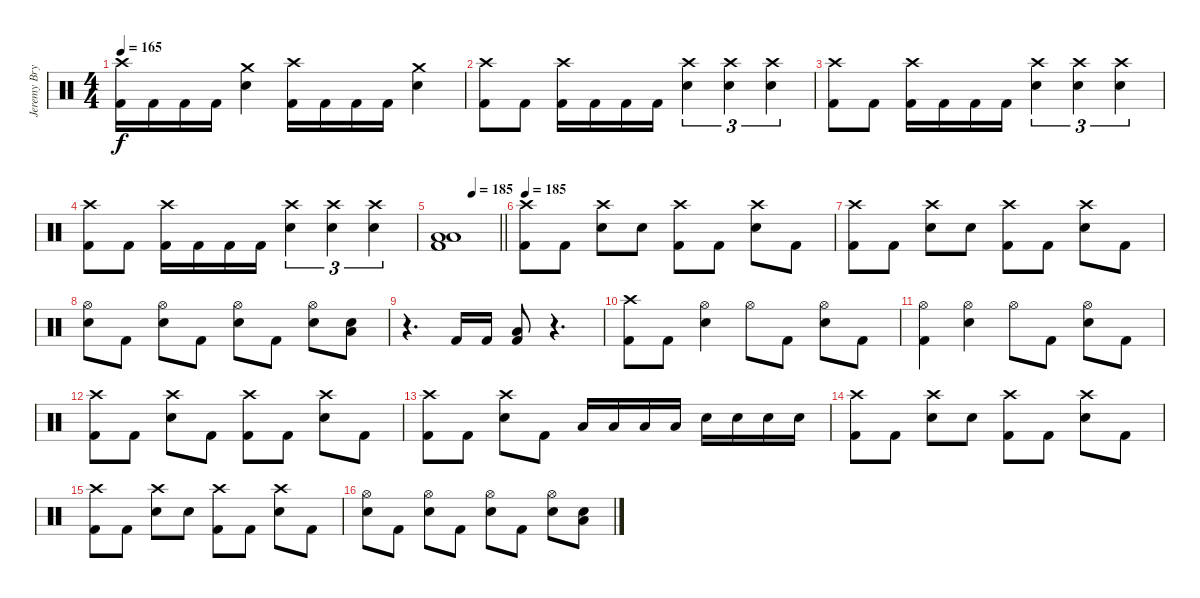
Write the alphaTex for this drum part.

\track ("Jeremy Bryan - Drums" "Jeremy Bry") {instrument percussion}
\staff {score}
\articulation defaults
\ts (4 4)
\tempo 165
\clef neutral
\ks c
("Crash high (hit)" "Kick (hit) 2").16{dy f} "Kick (hit) 2".16 "Kick (hit) 2".16 "Kick (hit) 2".16 ("Crash medium (hit)" "Electric Snare (hit)").4 ("Crash high (hit)" "Kick (hit) 2").16 "Kick (hit) 2".16 "Kick (hit) 2".16 "Kick (hit) 2".16 ("Crash medium (hit)" "Electric Snare (hit)").4 |
("Crash high (hit)" "Kick (hit) 2").8 "Kick (hit) 2".8 ("Crash high (hit)" "Kick (hit) 2").16 "Kick (hit) 2".16 "Kick (hit) 2".16 "Kick (hit) 2".16 ("Crash high (hit)" "Electric Snare (hit)").4{tu (3 2)} ("Crash high (hit)" "Electric Snare (hit)").4{tu (3 2)} ("Crash high (hit)" "Electric Snare (hit)").4{tu (3 2)} |
("Crash high (hit)" "Kick (hit) 2").8 "Kick (hit) 2".8 ("Crash high (hit)" "Kick (hit) 2").16 "Kick (hit) 2".16 "Kick (hit) 2".16 "Kick (hit) 2".16 ("Crash high (hit)" "Electric Snare (hit)").4{tu (3 2)} ("Crash high (hit)" "Electric Snare (hit)").4{tu (3 2)} ("Crash high (hit)" "Electric Snare (hit)").4{tu (3 2)} |
("Crash high (hit)" "Kick (hit) 2").8 "Kick (hit) 2".8 ("Crash high (hit)" "Kick (hit) 2").16 "Kick (hit) 2".16 "Kick (hit) 2".16 "Kick (hit) 2".16 ("Crash high (hit)" "Electric Snare (hit)").4{tu (3 2)} ("Crash high (hit)" "Electric Snare (hit)").4{tu (3 2)} ("Crash high (hit)" "Electric Snare (hit)").4{tu (3 2)} |
\tempo (185 0.5)
\barLineRight lightlight
("Low Tom (hit)" "Low Floor Tom (hit)" "Kick (hit) 2").1 |
\tempo 185
("Crash high (hit)" "Kick (hit) 2").8 "Kick (hit) 2".8 ("Crash high (hit)" "Electric Snare (hit)").8 "Electric Snare (hit)".8 ("Crash high (hit)" "Kick (hit) 2").8 "Kick (hit) 2".8 ("Crash high (hit)" "Electric Snare (hit)").8 "Kick (hit) 2".8 |
("Crash high (hit)" "Kick (hit) 2").8 "Kick (hit) 2".8 ("Crash high (hit)" "Electric Snare (hit)").8 "Electric Snare (hit)".8 ("Crash high (hit)" "Kick (hit) 2").8 "Kick (hit) 2".8 ("Crash high (hit)" "Electric Snare (hit)").8 "Kick (hit) 2".8 |
("Hi-Hat (open)" "Electric Snare (hit)").8 "Kick (hit) 2".8 ("Hi-Hat (open)" "Electric Snare (hit)").8 "Kick (hit) 2".8 ("Hi-Hat (open)" "Electric Snare (hit)").8 "Kick (hit) 2".8 ("Hi-Hat (open)" "Electric Snare (hit)").8 ("Low Floor Tom (hit)" "Electric Snare (hit)").8 |
r.4{d} "Kick (hit) 2".16 "Kick (hit) 2".16 ("Low Floor Tom (hit)" "Kick (hit) 2").8 r.4{d} |
("Crash high (hit)" "Kick (hit) 2").8 "Kick (hit) 2".8 ("Hi-Hat (open)" "Electric Snare (hit)").4 "Hi-Hat (open)".8 "Kick (hit) 2".8 ("Hi-Hat (open)" "Electric Snare (hit)").8 "Kick (hit) 2".8 |
("Hi-Hat (open)" "Kick (hit) 2").4 ("Hi-Hat (open)" "Electric Snare (hit)").4 "Hi-Hat (open)".8 "Kick (hit) 2".8 ("Hi-Hat (open)" "Electric Snare (hit)").8 "Kick (hit) 2".8 |
("Crash high (hit)" "Kick (hit) 2").8 "Kick (hit) 2".8 ("Crash high (hit)" "Electric Snare (hit)").8 "Kick (hit) 2".8 ("Crash high (hit)" "Kick (hit) 2").8 "Kick (hit) 2".8 ("Crash high (hit)" "Electric Snare (hit)").8 "Kick (hit) 2".8 |
("Crash high (hit)" "Kick (hit) 2").8 "Kick (hit) 2".8 ("Crash high (hit)" "Electric Snare (hit)").8 "Kick (hit) 2".8 "Low Tom (hit)".16 "Low Tom (hit)".16 "Low Tom (hit)".16 "Low Tom (hit)".16 "Electric Snare (hit)".16 "Electric Snare (hit)".16 "Electric Snare (hit)".16 "Electric Snare (hit)".16 |
("Crash high (hit)" "Kick (hit) 2").8 "Kick (hit) 2".8 ("Crash high (hit)" "Electric Snare (hit)").8 "Electric Snare (hit)".8 ("Crash high (hit)" "Kick (hit) 2").8 "Kick (hit) 2".8 ("Crash high (hit)" "Electric Snare (hit)").8 "Kick (hit) 2".8 |
("Crash high (hit)" "Kick (hit) 2").8 "Kick (hit) 2".8 ("Crash high (hit)" "Electric Snare (hit)").8 "Electric Snare (hit)".8 ("Crash high (hit)" "Kick (hit) 2").8 "Kick (hit) 2".8 ("Crash high (hit)" "Electric Snare (hit)").8 "Kick (hit) 2".8 |
("Hi-Hat (open)" "Electric Snare (hit)").8 "Kick (hit) 2".8 ("Hi-Hat (open)" "Electric Snare (hit)").8 "Kick (hit) 2".8 ("Hi-Hat (open)" "Electric Snare (hit)").8 "Kick (hit) 2".8 ("Hi-Hat (open)" "Electric Snare (hit)").8 ("Low Floor Tom (hit)" "Electric Snare (hit)").8
